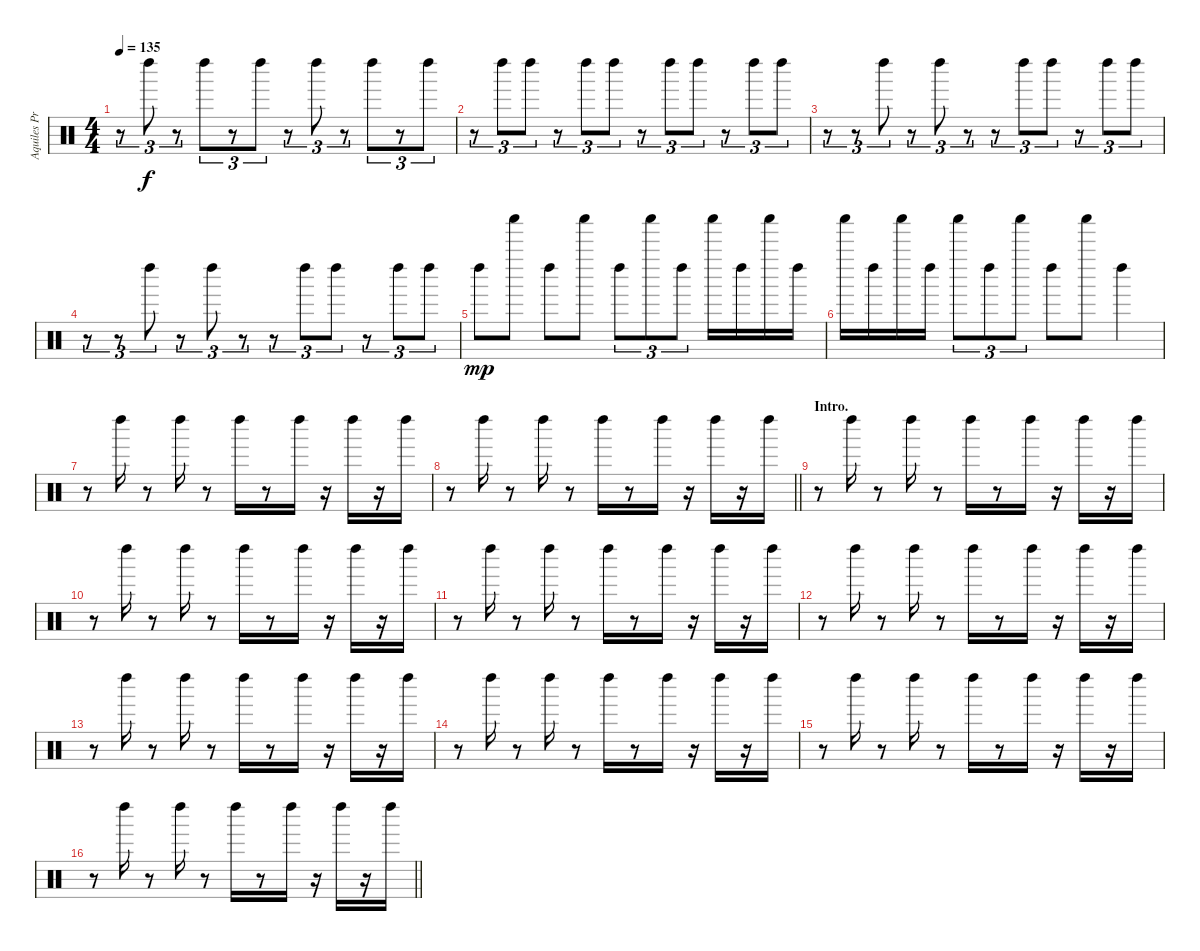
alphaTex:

\track ("Aquiles Priester" "Aquiles Pr") {instrument percussion}
\staff {score}
\articulation defaults
\ts (4 4)
\tempo 135
\clef neutral
\ks c
r.8{tu (3 2) dy f} "Left Maraca (hit)".8{tu (3 2)} r.8{tu (3 2)} "Left Maraca (hit)".8{tu (3 2)} r.8{tu (3 2)} "Left Maraca (hit)".8{tu (3 2)} r.8{tu (3 2)} "Left Maraca (hit)".8{tu (3 2)} r.8{tu (3 2)} "Left Maraca (hit)".8{tu (3 2)} r.8{tu (3 2)} "Left Maraca (hit)".8{tu (3 2)} |
r.8{tu (3 2)} "Left Maraca (hit)".8{tu (3 2)} "Left Maraca (hit)".8{tu (3 2)} r.8{tu (3 2)} "Left Maraca (hit)".8{tu (3 2)} "Left Maraca (hit)".8{tu (3 2)} r.8{tu (3 2)} "Left Maraca (hit)".8{tu (3 2)} "Left Maraca (hit)".8{tu (3 2)} r.8{tu (3 2)} "Left Maraca (hit)".8{tu (3 2)} "Left Maraca (hit)".8{tu (3 2)} |
r.8{tu (3 2)} r.8{tu (3 2)} "Left Maraca (hit)".8{tu (3 2)} r.8{tu (3 2)} "Left Maraca (hit)".8{tu (3 2)} r.8{tu (3 2)} r.8{tu (3 2)} "Left Maraca (hit)".8{tu (3 2)} "Left Maraca (hit)".8{tu (3 2)} r.8{tu (3 2)} "Left Maraca (hit)".8{tu (3 2)} "Left Maraca (hit)".8{tu (3 2)} |
r.8{tu (3 2)} r.8{tu (3 2)} "Left Maraca (hit)".8{tu (3 2)} r.8{tu (3 2)} "Left Maraca (hit)".8{tu (3 2)} r.8{tu (3 2)} r.8{tu (3 2)} "Left Maraca (hit)".8{tu (3 2)} "Left Maraca (hit)".8{tu (3 2)} r.8{tu (3 2)} "Left Maraca (hit)".8{tu (3 2)} "Left Maraca (hit)".8{tu (3 2)} |
"Left Maraca (hit)".8{dy mp} "Shaker (hit)".8 "Left Maraca (hit)".8 "Shaker (hit)".8 "Left Maraca (hit)".8{tu (3 2)} "Shaker (hit)".8{tu (3 2)} "Left Maraca (hit)".8{tu (3 2)} "Shaker (hit)".16 "Left Maraca (hit)".16 "Shaker (hit)".16 "Left Maraca (hit)".16 |
"Shaker (hit)".16 "Left Maraca (hit)".16 "Shaker (hit)".16 "Left Maraca (hit)".16 "Shaker (hit)".8{tu (3 2)} "Left Maraca (hit)".8{tu (3 2)} "Shaker (hit)".8{tu (3 2)} "Left Maraca (hit)".8 "Shaker (hit)".8 "Left Maraca (hit)".4 |
r.8 "Left Maraca (hit)".16 r.8 "Left Maraca (hit)".16 r.8 "Left Maraca (hit)".16 r.8 "Left Maraca (hit)".16 r.16 "Left Maraca (hit)".16 r.16 "Left Maraca (hit)".16 |
\barLineRight lightlight
r.8 "Left Maraca (hit)".16 r.8 "Left Maraca (hit)".16 r.8 "Left Maraca (hit)".16 r.8 "Left Maraca (hit)".16 r.16 "Left Maraca (hit)".16 r.16 "Left Maraca (hit)".16 |
\section ("" "Intro.")
r.8 "Left Maraca (hit)".16 r.8 "Left Maraca (hit)".16 r.8 "Left Maraca (hit)".16 r.8 "Left Maraca (hit)".16 r.16 "Left Maraca (hit)".16 r.16 "Left Maraca (hit)".16 |
r.8 "Left Maraca (hit)".16 r.8 "Left Maraca (hit)".16 r.8 "Left Maraca (hit)".16 r.8 "Left Maraca (hit)".16 r.16 "Left Maraca (hit)".16 r.16 "Left Maraca (hit)".16 |
r.8 "Left Maraca (hit)".16 r.8 "Left Maraca (hit)".16 r.8 "Left Maraca (hit)".16 r.8 "Left Maraca (hit)".16 r.16 "Left Maraca (hit)".16 r.16 "Left Maraca (hit)".16 |
r.8 "Left Maraca (hit)".16 r.8 "Left Maraca (hit)".16 r.8 "Left Maraca (hit)".16 r.8 "Left Maraca (hit)".16 r.16 "Left Maraca (hit)".16 r.16 "Left Maraca (hit)".16 |
r.8 "Left Maraca (hit)".16 r.8 "Left Maraca (hit)".16 r.8 "Left Maraca (hit)".16 r.8 "Left Maraca (hit)".16 r.16 "Left Maraca (hit)".16 r.16 "Left Maraca (hit)".16 |
r.8 "Left Maraca (hit)".16 r.8 "Left Maraca (hit)".16 r.8 "Left Maraca (hit)".16 r.8 "Left Maraca (hit)".16 r.16 "Left Maraca (hit)".16 r.16 "Left Maraca (hit)".16 |
r.8 "Left Maraca (hit)".16 r.8 "Left Maraca (hit)".16 r.8 "Left Maraca (hit)".16 r.8 "Left Maraca (hit)".16 r.16 "Left Maraca (hit)".16 r.16 "Left Maraca (hit)".16 |
\barLineRight lightlight
r.8 "Left Maraca (hit)".16 r.8 "Left Maraca (hit)".16 r.8 "Left Maraca (hit)".16 r.8 "Left Maraca (hit)".16 r.16 "Left Maraca (hit)".16 r.16 "Left Maraca (hit)".16
